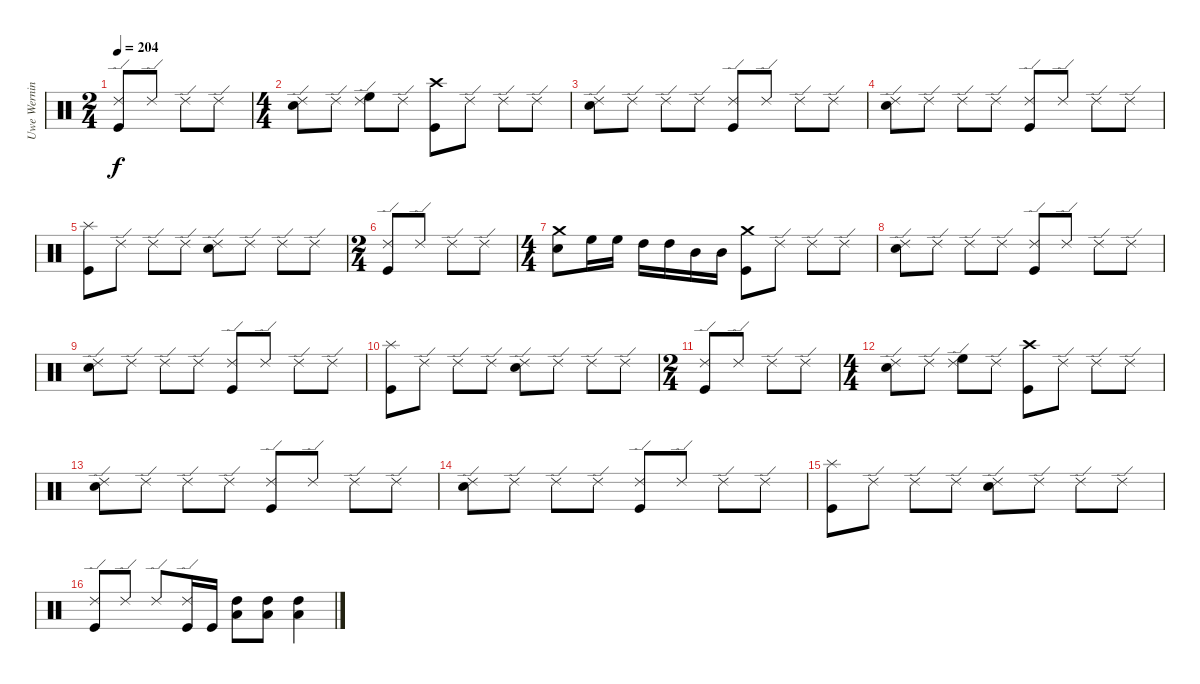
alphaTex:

\track ("Uwe Werning" "Uwe Wernin") {instrument percussion}
\staff {score}
\articulation defaults
\ts (2 4)
\tempo 204
\clef neutral
\ks c
("Ride (edge) 2" "Kick (hit)").8{dy f} "Ride (edge) 2".8 "Ride (edge) 2".8 "Ride (edge) 2".8 |
\ts (4 4)
("Ride (edge) 2" "Snare (hit) 2").8 "Ride (edge) 2".8 ("Ride (edge) 2" "High Floor Tom (hit)").8 "Ride (edge) 2".8 ("Crash high (hit)" "Kick (hit)").8 "Ride (edge) 2".8 "Ride (edge) 2".8 "Ride (edge) 2".8 |
("Ride (edge) 2" "Snare (hit) 2").8 "Ride (edge) 2".8 "Ride (edge) 2".8 "Ride (edge) 2".8 ("Ride (edge) 2" "Kick (hit)").8 "Ride (edge) 2".8 "Ride (edge) 2".8 "Ride (edge) 2".8 |
("Ride (edge) 2" "Snare (hit) 2").8 "Ride (edge) 2".8 "Ride (edge) 2".8 "Ride (edge) 2".8 ("Ride (edge) 2" "Kick (hit)").8 "Ride (edge) 2".8 "Ride (edge) 2".8 "Ride (edge) 2".8 |
("Splash (hit)" "Kick (hit)").8 "Ride (edge) 2".8 "Ride (edge) 2".8 "Ride (edge) 2".8 ("Ride (edge) 2" "Snare (hit) 2").8 "Ride (edge) 2".8 "Ride (edge) 2".8 "Ride (edge) 2".8 |
\ts (2 4)
("Ride (edge) 2" "Kick (hit)").8 "Ride (edge) 2".8 "Ride (edge) 2".8 "Ride (edge) 2".8 |
\ts (4 4)
("Crash medium (hit)" "Snare (hit) 2").8 "High Floor Tom (hit)".16 "High Floor Tom (hit)".16 "High Tom (hit)".16 "High Tom (hit)".16 "Mid Tom (hit)".16 "Mid Tom (hit)".16 ("Crash medium (hit)" "Kick (hit)").8 "Ride (edge) 2".8 "Ride (edge) 2".8 "Ride (edge) 2".8 |
("Ride (edge) 2" "Snare (hit) 2").8 "Ride (edge) 2".8 "Ride (edge) 2".8 "Ride (edge) 2".8 ("Ride (edge) 2" "Kick (hit)").8 "Ride (edge) 2".8 "Ride (edge) 2".8 "Ride (edge) 2".8 |
("Ride (edge) 2" "Snare (hit) 2").8 "Ride (edge) 2".8 "Ride (edge) 2".8 "Ride (edge) 2".8 ("Ride (edge) 2" "Kick (hit)").8 "Ride (edge) 2".8 "Ride (edge) 2".8 "Ride (edge) 2".8 |
("Splash (hit)" "Kick (hit)").8 "Ride (edge) 2".8 "Ride (edge) 2".8 "Ride (edge) 2".8 ("Ride (edge) 2" "Snare (hit) 2").8 "Ride (edge) 2".8 "Ride (edge) 2".8 "Ride (edge) 2".8 |
\ts (2 4)
("Ride (edge) 2" "Kick (hit)").8 "Ride (edge) 2".8 "Ride (edge) 2".8 "Ride (edge) 2".8 |
\ts (4 4)
("Ride (edge) 2" "Snare (hit) 2").8 "Ride (edge) 2".8 ("Ride (edge) 2" "High Floor Tom (hit)").8 "Ride (edge) 2".8 ("Crash high (hit)" "Kick (hit)").8 "Ride (edge) 2".8 "Ride (edge) 2".8 "Ride (edge) 2".8 |
("Ride (edge) 2" "Snare (hit) 2").8 "Ride (edge) 2".8 "Ride (edge) 2".8 "Ride (edge) 2".8 ("Ride (edge) 2" "Kick (hit)").8 "Ride (edge) 2".8 "Ride (edge) 2".8 "Ride (edge) 2".8 |
("Ride (edge) 2" "Snare (hit) 2").8 "Ride (edge) 2".8 "Ride (edge) 2".8 "Ride (edge) 2".8 ("Ride (edge) 2" "Kick (hit)").8 "Ride (edge) 2".8 "Ride (edge) 2".8 "Ride (edge) 2".8 |
("Splash (hit)" "Kick (hit)").8 "Ride (edge) 2".8 "Ride (edge) 2".8 "Ride (edge) 2".8 ("Ride (edge) 2" "Snare (hit) 2").8 "Ride (edge) 2".8 "Ride (edge) 2".8 "Ride (edge) 2".8 |
("Ride (edge) 2" "Kick (hit)").8 "Ride (edge) 2".8 "Ride (edge) 2".8 ("Ride (edge) 2" "Kick (hit)").16 "Kick (hit)".16 ("Low Tom (hit)" "High Tom (hit)").8 ("Low Tom (hit)" "High Tom (hit)").8 ("Low Tom (hit)" "High Tom (hit)").4
